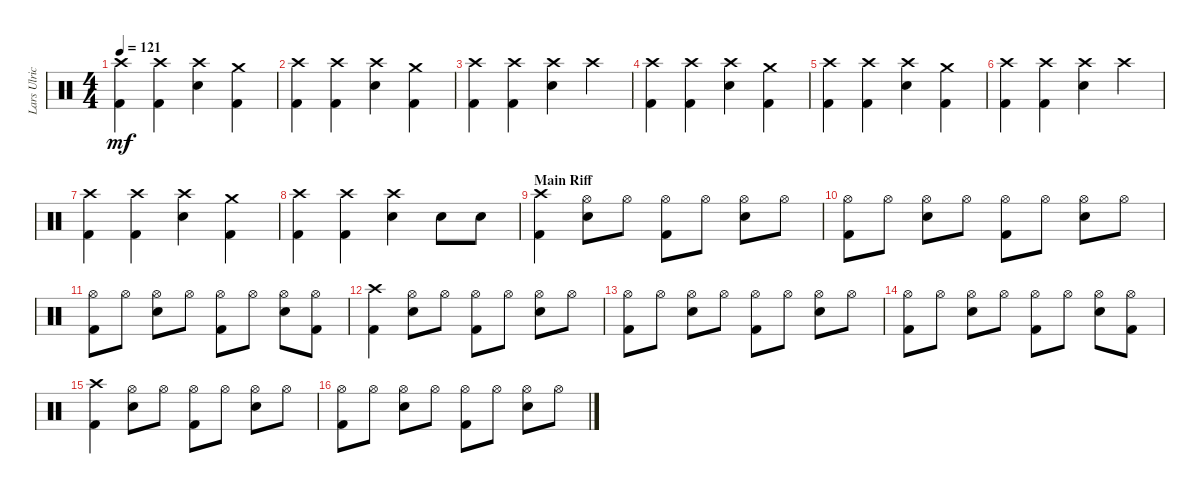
\track ("Lars Ulrich" "Lars Ulric") {instrument percussion}
\staff {score}
\articulation defaults
\ts (4 4)
\tempo 121
\clef neutral
\ks c
("Crash high (hit)" "Kick (hit) 2").4{dy mf} ("Crash high (hit)" "Kick (hit) 2").4 ("Crash high (hit)" "Snare (hit) 2").4 ("Crash medium (hit)" "Kick (hit) 2").4 |
("Crash high (hit)" "Kick (hit) 2").4 ("Crash high (hit)" "Kick (hit) 2").4 ("Crash high (hit)" "Snare (hit) 2").4 ("Crash medium (hit)" "Kick (hit) 2").4 |
("Crash high (hit)" "Kick (hit) 2").4 ("Crash high (hit)" "Kick (hit) 2").4 ("Crash high (hit)" "Snare (hit) 2").4 "Crash high (hit)".4 |
("Crash high (hit)" "Kick (hit) 2").4 ("Crash high (hit)" "Kick (hit) 2").4 ("Crash high (hit)" "Snare (hit) 2").4 ("Crash medium (hit)" "Kick (hit) 2").4 |
("Crash high (hit)" "Kick (hit) 2").4 ("Crash high (hit)" "Kick (hit) 2").4 ("Crash high (hit)" "Snare (hit) 2").4 ("Crash medium (hit)" "Kick (hit) 2").4 |
("Crash high (hit)" "Kick (hit) 2").4 ("Crash high (hit)" "Kick (hit) 2").4 ("Crash high (hit)" "Snare (hit) 2").4 "Crash high (hit)".4 |
("Crash high (hit)" "Kick (hit) 2").4 ("Crash high (hit)" "Kick (hit) 2").4 ("Crash high (hit)" "Snare (hit) 2").4 ("Crash medium (hit)" "Kick (hit) 2").4 |
("Crash high (hit)" "Kick (hit) 2").4 ("Crash high (hit)" "Kick (hit) 2").4 ("Crash high (hit)" "Snare (hit) 2").4 "Snare (hit) 2".8 "Snare (hit) 2".8 |
\section ("" "Main Riff")
("Crash high (hit)" "Kick (hit) 2").4 ("Hi-Hat (open)" "Snare (hit) 2").8 "Hi-Hat (open)".8 ("Hi-Hat (open)" "Kick (hit) 2").8 "Hi-Hat (open)".8 ("Hi-Hat (open)" "Snare (hit) 2").8 "Hi-Hat (open)".8 |
("Hi-Hat (open)" "Kick (hit) 2").8 "Hi-Hat (open)".8 ("Hi-Hat (open)" "Snare (hit) 2").8 "Hi-Hat (open)".8 ("Hi-Hat (open)" "Kick (hit) 2").8 "Hi-Hat (open)".8 ("Hi-Hat (open)" "Snare (hit) 2").8 "Hi-Hat (open)".8 |
("Hi-Hat (open)" "Kick (hit) 2").8 "Hi-Hat (open)".8 ("Hi-Hat (open)" "Snare (hit) 2").8 "Hi-Hat (open)".8 ("Hi-Hat (open)" "Kick (hit) 2").8 "Hi-Hat (open)".8 ("Hi-Hat (open)" "Snare (hit) 2").8 ("Hi-Hat (open)" "Kick (hit) 2").8 |
("Crash high (hit)" "Kick (hit) 2").4 ("Hi-Hat (open)" "Snare (hit) 2").8 "Hi-Hat (open)".8 ("Hi-Hat (open)" "Kick (hit) 2").8 "Hi-Hat (open)".8 ("Hi-Hat (open)" "Snare (hit) 2").8 "Hi-Hat (open)".8 |
("Hi-Hat (open)" "Kick (hit) 2").8 "Hi-Hat (open)".8 ("Hi-Hat (open)" "Snare (hit) 2").8 "Hi-Hat (open)".8 ("Hi-Hat (open)" "Kick (hit) 2").8 "Hi-Hat (open)".8 ("Hi-Hat (open)" "Snare (hit) 2").8 "Hi-Hat (open)".8 |
("Hi-Hat (open)" "Kick (hit) 2").8 "Hi-Hat (open)".8 ("Hi-Hat (open)" "Snare (hit) 2").8 "Hi-Hat (open)".8 ("Hi-Hat (open)" "Kick (hit) 2").8 "Hi-Hat (open)".8 ("Hi-Hat (open)" "Snare (hit) 2").8 ("Hi-Hat (open)" "Kick (hit) 2").8 |
("Crash high (hit)" "Kick (hit) 2").4 ("Hi-Hat (open)" "Snare (hit) 2").8 "Hi-Hat (open)".8 ("Hi-Hat (open)" "Kick (hit) 2").8 "Hi-Hat (open)".8 ("Hi-Hat (open)" "Snare (hit) 2").8 "Hi-Hat (open)".8 |
("Hi-Hat (open)" "Kick (hit) 2").8 "Hi-Hat (open)".8 ("Hi-Hat (open)" "Snare (hit) 2").8 "Hi-Hat (open)".8 ("Hi-Hat (open)" "Kick (hit) 2").8 "Hi-Hat (open)".8 ("Hi-Hat (open)" "Snare (hit) 2").8 "Hi-Hat (open)".8
